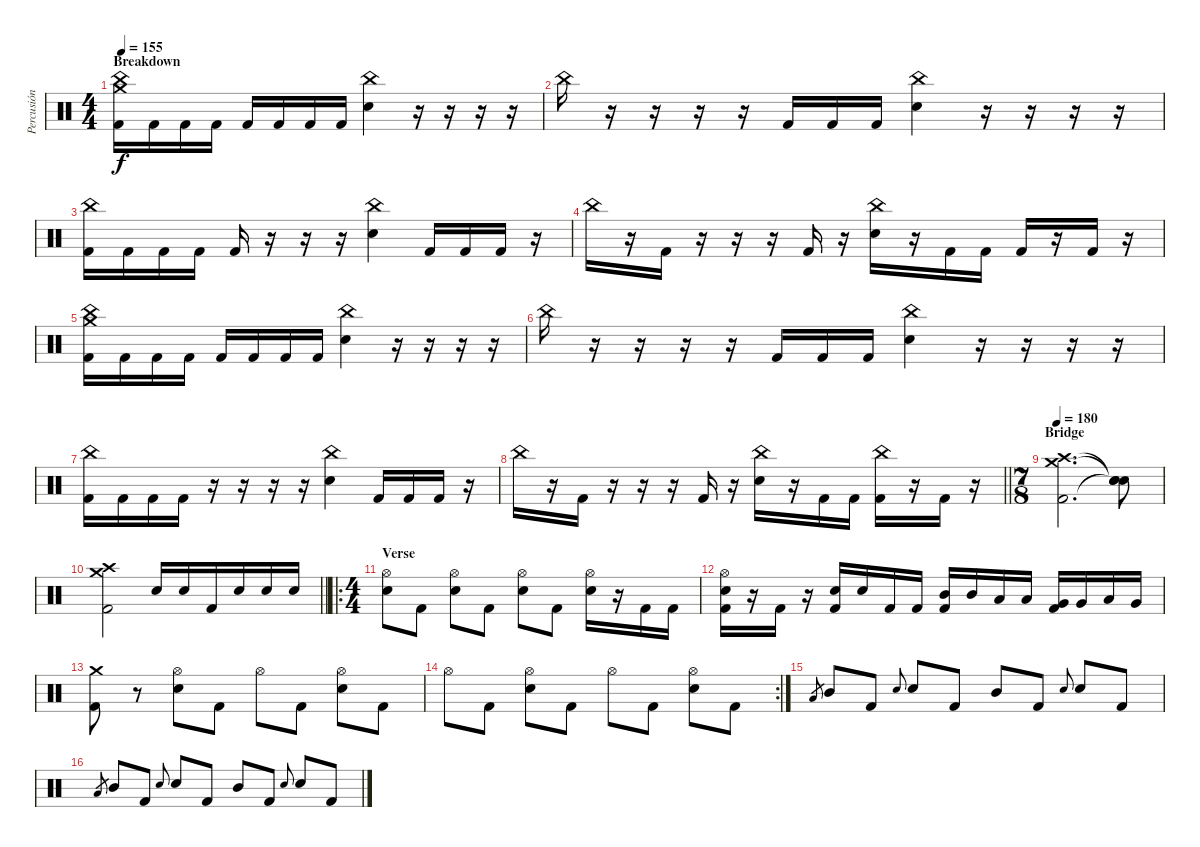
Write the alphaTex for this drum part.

\track ("Percusión" "Percusión") {instrument percussion}
\staff {score}
\articulation defaults
\ts (4 4)
\section ("" "Breakdown")
\tempo 155
\clef neutral
\ks c
("Crash medium (hit)" "China (hit)" "Kick (hit) 2").16{dy f} "Kick (hit) 2".16 "Kick (hit) 2".16 "Kick (hit) 2".16 "Kick (hit) 2".16 "Kick (hit) 2".16 "Kick (hit) 2".16 "Kick (hit) 2".16 ("China (hit)" "Electric Snare (hit)").4 r.16 r.16 r.16 r.16 |
"China (hit)".16 r.16 r.16 r.16 r.16 "Kick (hit) 2".16 "Kick (hit) 2".16 "Kick (hit) 2".16 ("China (hit)" "Electric Snare (hit)").4 r.16 r.16 r.16 r.16 |
("China (hit)" "Kick (hit) 2").16 "Kick (hit) 2".16 "Kick (hit) 2".16 "Kick (hit) 2".16 "Kick (hit) 2".16 r.16 r.16 r.16 ("China (hit)" "Electric Snare (hit)").4 "Kick (hit) 2".16 "Kick (hit) 2".16 "Kick (hit) 2".16 r.16 |
"China (hit)".16 r.16 "Kick (hit) 2".16 r.16 r.16 r.16 "Kick (hit) 2".16 r.16 ("China (hit)" "Electric Snare (hit)").16 r.16 "Kick (hit) 2".16 "Kick (hit) 2".16 "Kick (hit) 2".16 r.16 "Kick (hit) 2".16 r.16 |
("Crash medium (hit)" "China (hit)" "Kick (hit) 2").16 "Kick (hit) 2".16 "Kick (hit) 2".16 "Kick (hit) 2".16 "Kick (hit) 2".16 "Kick (hit) 2".16 "Kick (hit) 2".16 "Kick (hit) 2".16 ("China (hit)" "Electric Snare (hit)").4 r.16 r.16 r.16 r.16 |
"China (hit)".16 r.16 r.16 r.16 r.16 "Kick (hit) 2".16 "Kick (hit) 2".16 "Kick (hit) 2".16 ("China (hit)" "Electric Snare (hit)").4 r.16 r.16 r.16 r.16 |
("China (hit)" "Kick (hit) 2").16 "Kick (hit) 2".16 "Kick (hit) 2".16 "Kick (hit) 2".16 r.16 r.16 r.16 r.16 ("China (hit)" "Electric Snare (hit)").4 "Kick (hit) 2".16 "Kick (hit) 2".16 "Kick (hit) 2".16 r.16 |
\barLineRight lightlight "China (hit)".16
r.16 "Kick (hit) 2".16 r.16 r.16 r.16 "Kick (hit) 2".16 r.16 ("China (hit)" "Electric Snare (hit)").16 r.16 "Kick (hit) 2".16 "Kick (hit) 2".16 ("China (hit)" "Kick (hit) 2").16 r.16 "Kick (hit) 2".16 r.16 |
\ts (7 8)
\section ("" "Bridge")
\tempo 180
("Crash medium (hit)" "Crash high (hit)" "Kick (hit) 2").2{d} ("Snare (hit)"{t} "Snare (hit)"{t} "Snare (hit)"{t}).8 |
\barLineRight lightlight
("Crash medium (hit)" "Crash high (hit)" "Kick (hit) 2").2 "Electric Snare (hit)".16 "Electric Snare (hit)".16 "Kick (hit) 2".16 "Electric Snare (hit)".16 "Electric Snare (hit)".16 "Electric Snare (hit)".16 |
\ro
\ts (4 4)
\section ("" "Verse")
("Hi-Hat (open)" "Electric Snare (hit)").8 "Kick (hit) 2".8 ("Hi-Hat (open)" "Electric Snare (hit)").8 "Kick (hit) 2".8 ("Hi-Hat (open)" "Electric Snare (hit)").8 "Kick (hit) 2".8 ("Hi-Hat (open)" "Electric Snare (hit)").16 r.16 "Kick (hit) 2".16 "Kick (hit) 2".16 |
("Hi-Hat (open)" "Electric Snare (hit)" "Kick (hit) 2").16 r.16 "Kick (hit) 2".16 r.16 ("Electric Snare (hit)" "Kick (hit) 2").16 "Electric Snare (hit)".16 "Kick (hit) 2".16 "Kick (hit) 2".16 ("Mid Tom (hit)" "Kick (hit) 2").16 "Mid Tom (hit)".16 "Low Tom (hit)".16 "Low Tom (hit)".16 ("Very Low Tom (hit)" "Kick (hit) 2").16 "Very Low Tom (hit)".16 "Low Tom (hit)".16 "Very Low Tom (hit)".16 |
("Crash medium (hit)" "Kick (hit) 2").8 r.8 ("Hi-Hat (open)" "Electric Snare (hit)").8 "Kick (hit) 2".8 "Hi-Hat (open)".8 "Kick (hit) 2".8 ("Hi-Hat (open)" "Electric Snare (hit)").8 "Kick (hit) 2".8 |
\rc 2 "Hi-Hat (open)".8 "Kick (hit) 2".8
("Hi-Hat (open)" "Electric Snare (hit)").8 "Kick (hit) 2".8 "Hi-Hat (open)".8 "Kick (hit) 2".8 ("Hi-Hat (open)" "Electric Snare (hit)").8 "Kick (hit) 2".8 |
"Low Tom (hit)".8{gr} "Mid Tom (hit)".8 "Kick (hit) 2".8 "Electric Snare (hit)".8{gr onbeat} "Electric Snare (hit)".8 "Kick (hit) 2".8 "Mid Tom (hit)".8 "Kick (hit) 2".8 "Electric Snare (hit)".8{gr onbeat} "Electric Snare (hit)".8 "Kick (hit) 2".8 |
"Low Tom (hit)".8{gr} "Mid Tom (hit)".8 "Kick (hit) 2".8 "Electric Snare (hit)".8{gr onbeat} "Electric Snare (hit)".8 "Kick (hit) 2".8 "Mid Tom (hit)".8 "Kick (hit) 2".8 "Electric Snare (hit)".8{gr onbeat} "Electric Snare (hit)".8 "Kick (hit) 2".8
